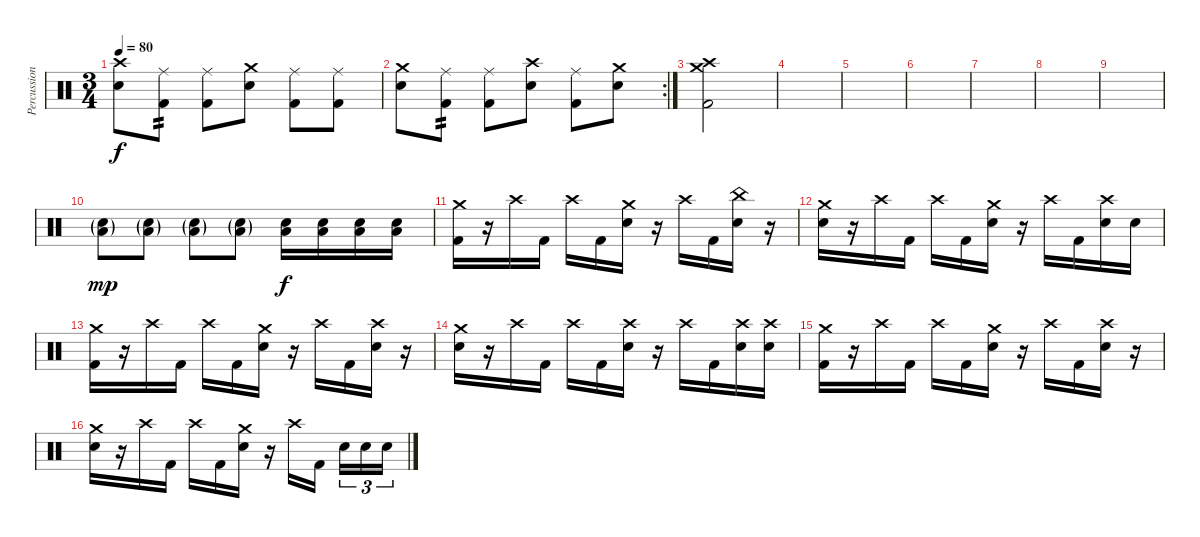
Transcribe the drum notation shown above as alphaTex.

\track ("Percussion" "Percussion") {instrument percussion}
\staff {score}
\articulation defaults
\ts (3 4)
\tempo 80
\clef neutral
\ks c
("Crash high (hit)" "Electric Snare (hit)").8{dy f} ("Ride (middle)" "Kick (hit) 2").8{tp 2} ("Ride (middle)" "Kick (hit) 2").8 ("Crash medium (hit)" "Electric Snare (hit)").8 ("Ride (middle)" "Kick (hit) 2").8 ("Ride (middle)" "Kick (hit) 2").8 |
\rc 2
("Crash medium (hit)" "Electric Snare (hit)").8 ("Ride (middle)" "Kick (hit) 2").8{tp 2} ("Ride (middle)" "Kick (hit) 2").8 ("Crash high (hit)" "Electric Snare (hit)").8 ("Ride (middle)" "Kick (hit) 2").8 ("Crash medium (hit)" "Electric Snare (hit)").8 |
("Kick (hit) 2" "Crash high (hit)" "Crash medium (hit)").2 |
|
|
|
|
|
|
("Electric Snare (hit)"{g} "Low Tom (hit)"{g}).8{dy mp} ("Electric Snare (hit)"{g} "Low Tom (hit)"{g}).8 ("Electric Snare (hit)"{g} "Low Tom (hit)"{g}).8 ("Electric Snare (hit)"{g} "Low Tom (hit)"{g}).8 ("Electric Snare (hit)" "Low Tom (hit)").16{dy f} ("Electric Snare (hit)" "Low Tom (hit)").16 ("Electric Snare (hit)" "Low Tom (hit)").16 ("Electric Snare (hit)" "Low Tom (hit)").16 |
("Crash medium (hit)" "Kick (hit) 2").16 r.16 "Crash high (hit)".16 "Kick (hit) 2".16 "Crash high (hit)".16 "Kick (hit) 2".16 ("Crash medium (hit)" "Electric Snare (hit)").16 r.16 "Crash high (hit)".16 "Kick (hit) 2".16 ("China (hit)" "Electric Snare (hit)").16 r.16 |
("Crash medium (hit)" "Electric Snare (hit)").16 r.16 "Crash high (hit)".16 "Kick (hit) 2".16 "Crash high (hit)".16 "Kick (hit) 2".16 ("Crash medium (hit)" "Electric Snare (hit)").16 r.16 "Crash high (hit)".16 "Kick (hit) 2".16 ("Crash high (hit)" "Electric Snare (hit)").16 "Electric Snare (hit)".16 |
("Crash medium (hit)" "Kick (hit) 2").16 r.16 "Crash high (hit)".16 "Kick (hit) 2".16 "Crash high (hit)".16 "Kick (hit) 2".16 ("Crash medium (hit)" "Electric Snare (hit)").16 r.16 "Crash high (hit)".16 "Kick (hit) 2".16 ("Crash high (hit)" "Electric Snare (hit)").16 r.16 |
("Crash medium (hit)" "Electric Snare (hit)").16 r.16 "Crash high (hit)".16 "Kick (hit) 2".16 "Crash high (hit)".16 "Kick (hit) 2".16 ("Crash high (hit)" "Electric Snare (hit)").16 r.16 "Crash high (hit)".16 "Kick (hit) 2".16 ("Crash high (hit)" "Electric Snare (hit)").16 ("Crash high (hit)" "Electric Snare (hit)").16 |
("Crash medium (hit)" "Kick (hit) 2").16 r.16 "Crash high (hit)".16 "Kick (hit) 2".16 "Crash high (hit)".16 "Kick (hit) 2".16 ("Crash medium (hit)" "Electric Snare (hit)").16 r.16 "Crash high (hit)".16 "Kick (hit) 2".16 ("Crash high (hit)" "Electric Snare (hit)").16 r.16 |
("Crash medium (hit)" "Electric Snare (hit)").16 r.16 "Crash high (hit)".16 "Kick (hit) 2".16 "Crash high (hit)".16 "Kick (hit) 2".16 ("Crash medium (hit)" "Electric Snare (hit)").16 r.16 "Crash high (hit)".16 "Kick (hit) 2".16{beam splitsecondary} "Electric Snare (hit)".16{tu (3 2)} "Electric Snare (hit)".16{tu (3 2)} "Electric Snare (hit)".16{tu (3 2)}
